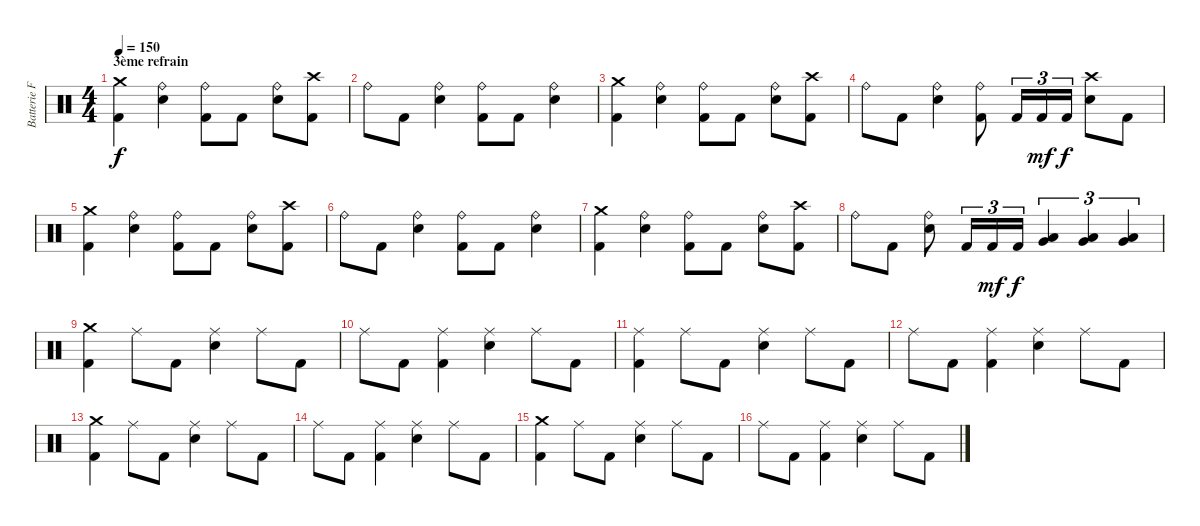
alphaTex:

\track ("Batterie Franck" "Batterie F") {instrument percussion}
\staff {score}
\articulation defaults
\ts (4 4)
\section ("" "3ème refrain")
\tempo 150
\clef neutral
\ks c
("Crash medium (hit)" "Kick (hit) 2").4{dy f} ("Ride (bell)" "Snare (hit) 2").4 ("Ride (bell)" "Kick (hit) 2").8 "Kick (hit) 2".8 ("Ride (bell)" "Snare (hit) 2").8 ("Crash high (hit)" "Kick (hit) 2").8 |
"Ride (bell)".8 "Kick (hit) 2".8 ("Ride (bell)" "Snare (hit) 2").4 ("Ride (bell)" "Kick (hit) 2").8 "Kick (hit) 2".8 ("Ride (bell)" "Snare (hit) 2").4 |
("Crash medium (hit)" "Kick (hit) 2").4 ("Ride (bell)" "Snare (hit) 2").4 ("Ride (bell)" "Kick (hit) 2").8 "Kick (hit) 2".8 ("Ride (bell)" "Snare (hit) 2").8 ("Crash high (hit)" "Kick (hit) 2").8 |
"Ride (bell)".8 "Kick (hit) 2".8 ("Ride (bell)" "Snare (hit) 2").4 ("Ride (bell)" "Kick (hit) 2").8 "Kick (hit) 2".16{tu (3 2)} "Kick (hit) 2".16{tu (3 2) dy mf} "Kick (hit) 2".16{tu (3 2) dy f} ("Crash high (hit)" "Snare (hit) 2").8 "Kick (hit) 2".8 |
("Crash medium (hit)" "Kick (hit) 2").4 ("Ride (bell)" "Snare (hit) 2").4 ("Ride (bell)" "Kick (hit) 2").8 "Kick (hit) 2".8 ("Ride (bell)" "Snare (hit) 2").8 ("Crash high (hit)" "Kick (hit) 2").8 |
"Ride (bell)".8 "Kick (hit) 2".8 ("Ride (bell)" "Snare (hit) 2").4 ("Ride (bell)" "Kick (hit) 2").8 "Kick (hit) 2".8 ("Ride (bell)" "Snare (hit) 2").4 |
("Crash medium (hit)" "Kick (hit) 2").4 ("Ride (bell)" "Snare (hit) 2").4 ("Ride (bell)" "Kick (hit) 2").8 "Kick (hit) 2".8 ("Ride (bell)" "Snare (hit) 2").8 ("Crash high (hit)" "Kick (hit) 2").8 |
"Ride (bell)".8 "Kick (hit) 2".8 ("Ride (bell)" "Snare (hit) 2").8 "Kick (hit) 2".16{tu (3 2)} "Kick (hit) 2".16{tu (3 2) dy mf} "Kick (hit) 2".16{tu (3 2) dy f} ("Very Low Tom (hit)" "Low Tom (hit)").4{tu (3 2)} ("Very Low Tom (hit)" "Low Tom (hit)").4{tu (3 2)} ("Very Low Tom (hit)" "Low Tom (hit)").4{tu (3 2)} |
("Crash medium (hit)" "Kick (hit) 2").4 "Ride (middle)".8 "Kick (hit) 2".8 ("Ride (middle)" "Snare (hit) 2").4 "Ride (middle)".8 "Kick (hit) 2".8 |
"Ride (middle)".8 "Kick (hit) 2".8 ("Ride (middle)" "Kick (hit) 2").4 ("Ride (middle)" "Snare (hit) 2").4 "Ride (middle)".8 "Kick (hit) 2".8 |
("Ride (middle)" "Kick (hit) 2").4 "Ride (middle)".8 "Kick (hit) 2".8 ("Ride (middle)" "Snare (hit) 2").4 "Ride (middle)".8 "Kick (hit) 2".8 |
"Ride (middle)".8 "Kick (hit) 2".8 ("Ride (middle)" "Kick (hit) 2").4 ("Ride (middle)" "Snare (hit) 2").4 "Ride (middle)".8 "Kick (hit) 2".8 |
("Crash medium (hit)" "Kick (hit) 2").4 "Ride (middle)".8 "Kick (hit) 2".8 ("Ride (middle)" "Snare (hit) 2").4 "Ride (middle)".8 "Kick (hit) 2".8 |
"Ride (middle)".8 "Kick (hit) 2".8 ("Ride (middle)" "Kick (hit) 2").4 ("Ride (middle)" "Snare (hit) 2").4 "Ride (middle)".8 "Kick (hit) 2".8 |
("Crash medium (hit)" "Kick (hit) 2").4 "Ride (middle)".8 "Kick (hit) 2".8 ("Ride (middle)" "Snare (hit) 2").4 "Ride (middle)".8 "Kick (hit) 2".8 |
"Ride (middle)".8 "Kick (hit) 2".8 ("Ride (middle)" "Kick (hit) 2").4 ("Ride (middle)" "Snare (hit) 2").4 "Ride (middle)".8 "Kick (hit) 2".8
